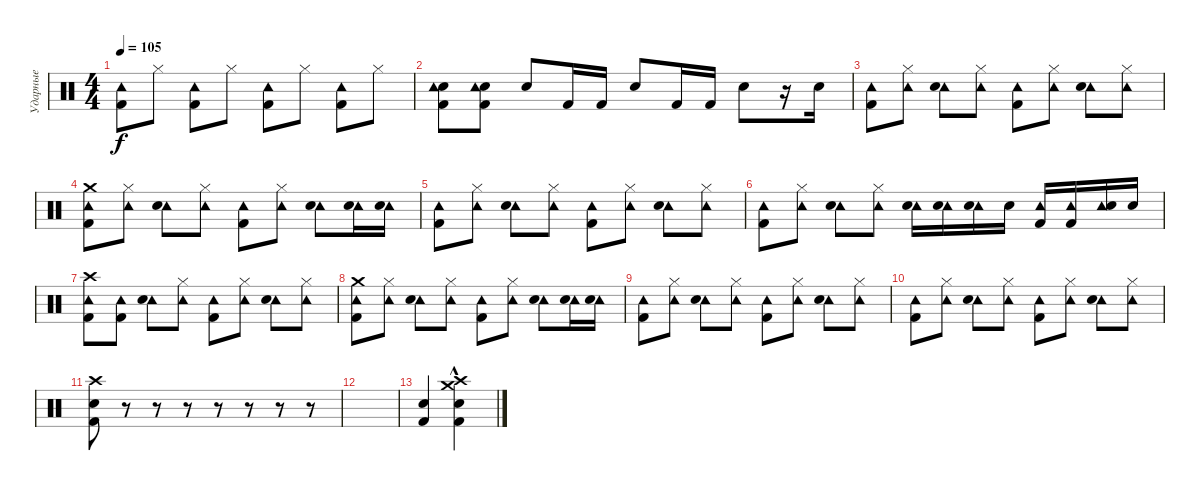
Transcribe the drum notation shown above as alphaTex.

\track ("Ударные" "Ударные") {instrument percussion}
\staff {score}
\articulation defaults
\ts (4 4)
\tempo 105
\clef neutral
\ks c
("Tambourine (hit)" "Kick (hit) 2").8{dy f} "Hi-Hat (closed)".8 ("Tambourine (hit)" "Kick (hit) 2").8 "Hi-Hat (closed)".8 ("Tambourine (hit)" "Kick (hit) 2").8 "Hi-Hat (closed)".8 ("Tambourine (hit)" "Kick (hit) 2").8 "Hi-Hat (closed)".8 |
("Snare (hit) 2" "Kick (hit) 2" "Tambourine (hit)").8 ("Snare (hit) 2" "Kick (hit) 2" "Tambourine (hit)").8 "Electric Snare (hit)".8 "Kick (hit) 2".16 "Kick (hit) 2".16 "Electric Snare (hit)".8 "Kick (hit) 2".16 "Kick (hit) 2".16 "Electric Snare (hit)".8 r.16 "Electric Snare (hit)".16 |
("Tambourine (hit)" "Kick (hit) 2").8 ("Tambourine (hit)" "Hi-Hat (closed)").8 ("Tambourine (hit)" "Snare (hit) 2").8 ("Tambourine (hit)" "Hi-Hat (closed)").8 ("Tambourine (hit)" "Kick (hit) 2").8 ("Tambourine (hit)" "Hi-Hat (closed)").8 ("Tambourine (hit)" "Snare (hit) 2").8 ("Tambourine (hit)" "Hi-Hat (closed)").8 |
("Tambourine (hit)" "Crash medium (hit)" "Kick (hit) 2").8 ("Tambourine (hit)" "Hi-Hat (closed)").8 ("Tambourine (hit)" "Snare (hit) 2").8 ("Tambourine (hit)" "Hi-Hat (closed)").8 ("Tambourine (hit)" "Kick (hit) 2").8 ("Tambourine (hit)" "Hi-Hat (closed)").8 ("Tambourine (hit)" "Snare (hit) 2").8 ("Tambourine (hit)" "Snare (hit) 2").16 ("Tambourine (hit)" "Snare (hit) 2").16 |
("Tambourine (hit)" "Kick (hit) 2").8 ("Tambourine (hit)" "Hi-Hat (closed)").8 ("Tambourine (hit)" "Snare (hit) 2").8 ("Tambourine (hit)" "Hi-Hat (closed)").8 ("Tambourine (hit)" "Kick (hit) 2").8 ("Tambourine (hit)" "Hi-Hat (closed)").8 ("Tambourine (hit)" "Snare (hit) 2").8 ("Tambourine (hit)" "Hi-Hat (closed)").8 |
("Tambourine (hit)" "Kick (hit) 2").8 ("Tambourine (hit)" "Hi-Hat (closed)").8 ("Tambourine (hit)" "Snare (hit) 2").8 ("Tambourine (hit)" "Hi-Hat (closed)").8 ("Tambourine (hit)" "Snare (hit) 2").16 ("Tambourine (hit)" "Snare (hit) 2").16 ("Tambourine (hit)" "Snare (hit) 2").16 "Snare (hit) 2".16 ("Tambourine (hit)" "Kick (hit) 2").16 ("Tambourine (hit)" "Kick (hit) 2").16 ("Tambourine (hit)" "Snare (hit) 2").16 "Snare (hit) 2".16 |
("Tambourine (hit)" "Crash high (hit)" "Kick (hit) 2").8 ("Tambourine (hit)" "Kick (hit) 2").8 ("Tambourine (hit)" "Snare (hit) 2").8 ("Tambourine (hit)" "Hi-Hat (closed)").8 ("Tambourine (hit)" "Kick (hit) 2").8 ("Tambourine (hit)" "Hi-Hat (closed)").8 ("Tambourine (hit)" "Snare (hit) 2").8 ("Tambourine (hit)" "Hi-Hat (closed)").8 |
("Tambourine (hit)" "Crash medium (hit)" "Kick (hit) 2").8 ("Tambourine (hit)" "Hi-Hat (closed)").8 ("Tambourine (hit)" "Snare (hit) 2").8 ("Tambourine (hit)" "Hi-Hat (closed)").8 ("Tambourine (hit)" "Kick (hit) 2").8 ("Tambourine (hit)" "Hi-Hat (closed)").8 ("Tambourine (hit)" "Snare (hit) 2").8 ("Tambourine (hit)" "Snare (hit) 2").16 ("Tambourine (hit)" "Snare (hit) 2").16 |
("Tambourine (hit)" "Kick (hit) 2").8 ("Tambourine (hit)" "Hi-Hat (closed)").8 ("Tambourine (hit)" "Snare (hit) 2").8 ("Tambourine (hit)" "Hi-Hat (closed)").8 ("Tambourine (hit)" "Kick (hit) 2").8 ("Tambourine (hit)" "Hi-Hat (closed)").8 ("Tambourine (hit)" "Snare (hit) 2").8 ("Tambourine (hit)" "Hi-Hat (closed)").8 |
("Tambourine (hit)" "Kick (hit) 2").8 ("Tambourine (hit)" "Hi-Hat (closed)").8 ("Tambourine (hit)" "Snare (hit) 2").8 ("Tambourine (hit)" "Hi-Hat (closed)").8 ("Tambourine (hit)" "Kick (hit) 2").8 ("Tambourine (hit)" "Hi-Hat (closed)").8 ("Tambourine (hit)" "Snare (hit) 2").8 ("Tambourine (hit)" "Hi-Hat (closed)").8 |
("Crash high (hit)" "Snare (hit) 2" "Kick (hit) 2").8 r.8 r.8 r.8 r.8 r.8 r.8 r.8 |
|
("Snare (hit) 2" "Kick (hit) 2").4 ("Crash high (hit)" "Snare (hit) 2" "Kick (hit) 2" "Crash medium (hit)"{hac}).4
